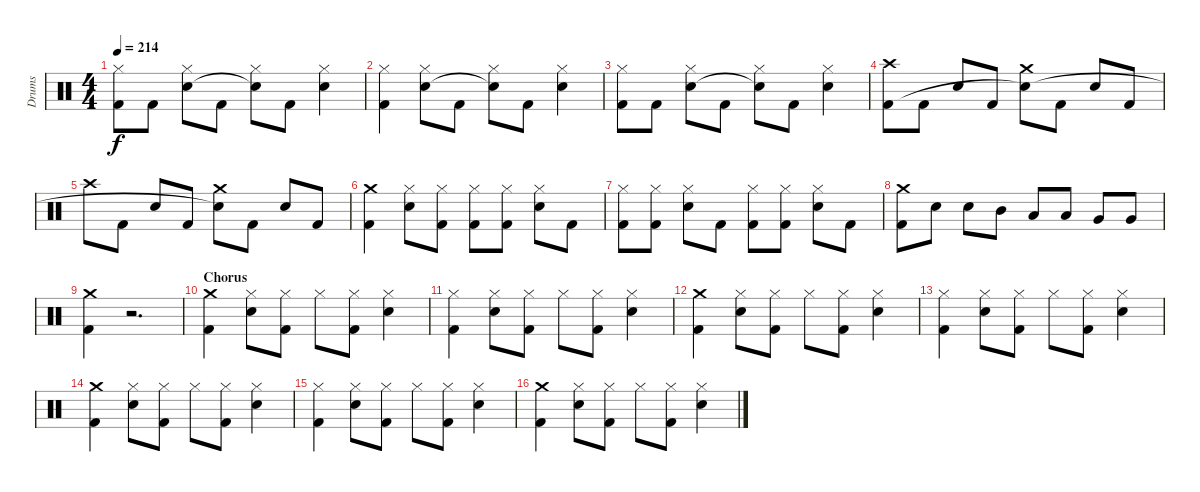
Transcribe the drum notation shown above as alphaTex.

\track ("Drums" "Drums") {instrument percussion}
\staff {score}
\articulation defaults
\ts (4 4)
\tempo 214
\clef neutral
\ks c
("Hi-Hat (closed)" "Kick (hit) 2").8{dy f} "Kick (hit) 2".8 ("Hi-Hat (closed)" "Electric Snare (hit)").8 "Kick (hit) 2".8 ("Hi-Hat (closed)" "Snare (hit)"{t}).8 "Kick (hit) 2".8 ("Hi-Hat (closed)" "Electric Snare (hit)").4 |
("Hi-Hat (closed)" "Kick (hit) 2").4 ("Hi-Hat (closed)" "Electric Snare (hit)").8 "Kick (hit) 2".8 ("Hi-Hat (closed)" "Snare (hit)"{t}).8 "Kick (hit) 2".8 ("Hi-Hat (closed)" "Electric Snare (hit)").4 |
("Hi-Hat (closed)" "Kick (hit) 2").8 "Kick (hit) 2".8 ("Hi-Hat (closed)" "Electric Snare (hit)").8 "Kick (hit) 2".8 ("Hi-Hat (closed)" "Snare (hit)"{t}).8 "Kick (hit) 2".8 ("Hi-Hat (closed)" "Electric Snare (hit)").4 |
("Crash high (hit)" "Kick (hit) 2").8 "Kick (hit) 2".8 "Electric Snare (hit)".8 "Kick (hit) 2".8 ("Crash medium (hit)" "Snare (hit)"{t}).8 "Kick (hit) 2".8 "Electric Snare (hit)".8 "Kick (hit) 2".8 |
"Crash high (hit)".8 "Kick (hit) 2".8 "Electric Snare (hit)".8 "Kick (hit) 2".8 ("Crash medium (hit)" "Snare (hit)"{t}).8 "Kick (hit) 2".8 "Electric Snare (hit)".8 "Kick (hit) 2".8 |
("Crash medium (hit)" "Kick (hit) 2").4 ("Hi-Hat (closed)" "Electric Snare (hit)").8 ("Hi-Hat (closed)" "Kick (hit) 2").8 ("Hi-Hat (closed)" "Kick (hit) 2").8 ("Hi-Hat (closed)" "Kick (hit) 2").8 ("Hi-Hat (closed)" "Electric Snare (hit)").8 "Kick (hit) 2".8 |
("Hi-Hat (closed)" "Kick (hit) 2").8 ("Hi-Hat (closed)" "Kick (hit) 2").8 ("Hi-Hat (closed)" "Electric Snare (hit)").8 "Kick (hit) 2".8 ("Hi-Hat (closed)" "Kick (hit) 2").8 ("Hi-Hat (closed)" "Kick (hit) 2").8 ("Hi-Hat (closed)" "Electric Snare (hit)").8 "Kick (hit) 2".8 |
("Crash medium (hit)" "Kick (hit) 2").8 "Electric Snare (hit)".8 "Electric Snare (hit)".8 "Mid Tom (hit)".8 "Low Tom (hit)".8 "Low Tom (hit)".8 "Very Low Tom (hit)".8 "Very Low Tom (hit)".8 |
("Crash medium (hit)" "Kick (hit) 2").4 r.2{d} |
\section ("" "Chorus")
("Crash medium (hit)" "Kick (hit) 2").4 ("Hi-Hat (closed)" "Electric Snare (hit)").8 ("Hi-Hat (closed)" "Kick (hit) 2").8 "Hi-Hat (closed)".8 ("Hi-Hat (closed)" "Kick (hit) 2").8 ("Hi-Hat (closed)" "Electric Snare (hit)").4 |
("Hi-Hat (closed)" "Kick (hit) 2").4 ("Hi-Hat (closed)" "Electric Snare (hit)").8 ("Hi-Hat (closed)" "Kick (hit) 2").8 "Hi-Hat (closed)".8 ("Hi-Hat (closed)" "Kick (hit) 2").8 ("Hi-Hat (closed)" "Electric Snare (hit)").4 |
("Crash medium (hit)" "Kick (hit) 2").4 ("Hi-Hat (closed)" "Electric Snare (hit)").8 ("Hi-Hat (closed)" "Kick (hit) 2").8 "Hi-Hat (closed)".8 ("Hi-Hat (closed)" "Kick (hit) 2").8 ("Hi-Hat (closed)" "Electric Snare (hit)").4 |
("Hi-Hat (closed)" "Kick (hit) 2").4 ("Hi-Hat (closed)" "Electric Snare (hit)").8 ("Hi-Hat (closed)" "Kick (hit) 2").8 "Hi-Hat (closed)".8 ("Hi-Hat (closed)" "Kick (hit) 2").8 ("Hi-Hat (closed)" "Electric Snare (hit)").4 |
("Crash medium (hit)" "Kick (hit) 2").4 ("Hi-Hat (closed)" "Electric Snare (hit)").8 ("Hi-Hat (closed)" "Kick (hit) 2").8 "Hi-Hat (closed)".8 ("Hi-Hat (closed)" "Kick (hit) 2").8 ("Hi-Hat (closed)" "Electric Snare (hit)").4 |
("Hi-Hat (closed)" "Kick (hit) 2").4 ("Hi-Hat (closed)" "Electric Snare (hit)").8 ("Hi-Hat (closed)" "Kick (hit) 2").8 "Hi-Hat (closed)".8 ("Hi-Hat (closed)" "Kick (hit) 2").8 ("Hi-Hat (closed)" "Electric Snare (hit)").4 |
("Crash medium (hit)" "Kick (hit) 2").4 ("Hi-Hat (closed)" "Electric Snare (hit)").8 ("Hi-Hat (closed)" "Kick (hit) 2").8 "Hi-Hat (closed)".8 ("Hi-Hat (closed)" "Kick (hit) 2").8 ("Hi-Hat (closed)" "Electric Snare (hit)").4
